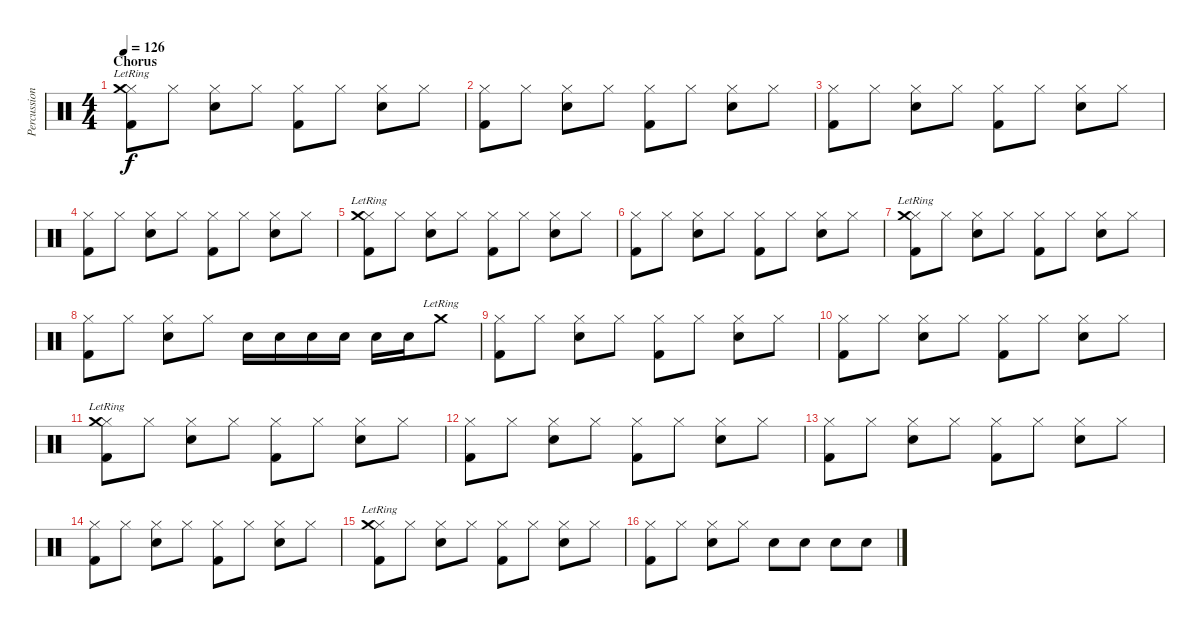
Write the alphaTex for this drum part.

\track ("Percussion" "Percussion") {instrument percussion}
\staff {score}
\articulation defaults
\ts (4 4)
\section ("" "Chorus")
\tempo 126
\clef neutral
\ks c
("Hi-Hat (closed)" "Kick (hit) 2" "Crash medium (hit)"{lr}).8{dy f} "Hi-Hat (closed)".8 ("Hi-Hat (closed)" "Snare (hit) 2").8 "Hi-Hat (closed)".8 ("Hi-Hat (closed)" "Kick (hit) 2").8 "Hi-Hat (closed)".8 ("Hi-Hat (closed)" "Snare (hit) 2").8 "Hi-Hat (closed)".8 |
("Hi-Hat (closed)" "Kick (hit) 2").8 "Hi-Hat (closed)".8 ("Hi-Hat (closed)" "Snare (hit) 2").8 "Hi-Hat (closed)".8 ("Hi-Hat (closed)" "Kick (hit) 2").8 "Hi-Hat (closed)".8 ("Hi-Hat (closed)" "Snare (hit) 2").8 "Hi-Hat (closed)".8 |
("Hi-Hat (closed)" "Kick (hit) 2").8 "Hi-Hat (closed)".8 ("Hi-Hat (closed)" "Snare (hit) 2").8 "Hi-Hat (closed)".8 ("Hi-Hat (closed)" "Kick (hit) 2").8 "Hi-Hat (closed)".8 ("Hi-Hat (closed)" "Snare (hit) 2").8 "Hi-Hat (closed)".8 |
("Hi-Hat (closed)" "Kick (hit) 2").8 "Hi-Hat (closed)".8 ("Hi-Hat (closed)" "Snare (hit) 2").8 "Hi-Hat (closed)".8 ("Hi-Hat (closed)" "Kick (hit) 2").8 "Hi-Hat (closed)".8 ("Hi-Hat (closed)" "Snare (hit) 2").8 "Hi-Hat (closed)".8 |
("Hi-Hat (closed)" "Kick (hit) 2" "Crash medium (hit)"{lr}).8 "Hi-Hat (closed)".8 ("Hi-Hat (closed)" "Snare (hit) 2").8 "Hi-Hat (closed)".8 ("Hi-Hat (closed)" "Kick (hit) 2").8 "Hi-Hat (closed)".8 ("Hi-Hat (closed)" "Snare (hit) 2").8 "Hi-Hat (closed)".8 |
("Hi-Hat (closed)" "Kick (hit) 2").8 "Hi-Hat (closed)".8 ("Hi-Hat (closed)" "Snare (hit) 2").8 "Hi-Hat (closed)".8 ("Hi-Hat (closed)" "Kick (hit) 2").8 "Hi-Hat (closed)".8 ("Hi-Hat (closed)" "Snare (hit) 2").8 "Hi-Hat (closed)".8 |
("Hi-Hat (closed)" "Kick (hit) 2" "Crash medium (hit)"{lr}).8 "Hi-Hat (closed)".8 ("Hi-Hat (closed)" "Snare (hit) 2").8 "Hi-Hat (closed)".8 ("Hi-Hat (closed)" "Kick (hit) 2").8 "Hi-Hat (closed)".8 ("Hi-Hat (closed)" "Snare (hit) 2").8 "Hi-Hat (closed)".8 |
("Hi-Hat (closed)" "Kick (hit) 2").8 "Hi-Hat (closed)".8 ("Hi-Hat (closed)" "Snare (hit) 2").8 "Hi-Hat (closed)".8 "Snare (hit) 2".16 "Snare (hit) 2".16 "Snare (hit) 2".16 "Snare (hit) 2".16 "Snare (hit) 2".16 "Snare (hit) 2".16 "Crash medium (hit)"{lr}.8 |
("Hi-Hat (closed)" "Kick (hit) 2").8 "Hi-Hat (closed)".8 ("Hi-Hat (closed)" "Snare (hit) 2").8 "Hi-Hat (closed)".8 ("Hi-Hat (closed)" "Kick (hit) 2").8 "Hi-Hat (closed)".8 ("Hi-Hat (closed)" "Snare (hit) 2").8 "Hi-Hat (closed)".8 |
("Hi-Hat (closed)" "Kick (hit) 2").8 "Hi-Hat (closed)".8 ("Hi-Hat (closed)" "Snare (hit) 2").8 "Hi-Hat (closed)".8 ("Hi-Hat (closed)" "Kick (hit) 2").8 "Hi-Hat (closed)".8 ("Hi-Hat (closed)" "Snare (hit) 2").8 "Hi-Hat (closed)".8 |
("Hi-Hat (closed)" "Kick (hit) 2" "Crash medium (hit)"{lr}).8 "Hi-Hat (closed)".8 ("Hi-Hat (closed)" "Snare (hit) 2").8 "Hi-Hat (closed)".8 ("Hi-Hat (closed)" "Kick (hit) 2").8 "Hi-Hat (closed)".8 ("Hi-Hat (closed)" "Snare (hit) 2").8 "Hi-Hat (closed)".8 |
("Hi-Hat (closed)" "Kick (hit) 2").8 "Hi-Hat (closed)".8 ("Hi-Hat (closed)" "Snare (hit) 2").8 "Hi-Hat (closed)".8 ("Hi-Hat (closed)" "Kick (hit) 2").8 "Hi-Hat (closed)".8 ("Hi-Hat (closed)" "Snare (hit) 2").8 "Hi-Hat (closed)".8 |
("Hi-Hat (closed)" "Kick (hit) 2").8 "Hi-Hat (closed)".8 ("Hi-Hat (closed)" "Snare (hit) 2").8 "Hi-Hat (closed)".8 ("Hi-Hat (closed)" "Kick (hit) 2").8 "Hi-Hat (closed)".8 ("Hi-Hat (closed)" "Snare (hit) 2").8 "Hi-Hat (closed)".8 |
("Hi-Hat (closed)" "Kick (hit) 2").8 "Hi-Hat (closed)".8 ("Hi-Hat (closed)" "Snare (hit) 2").8 "Hi-Hat (closed)".8 ("Hi-Hat (closed)" "Kick (hit) 2").8 "Hi-Hat (closed)".8 ("Hi-Hat (closed)" "Snare (hit) 2").8 "Hi-Hat (closed)".8 |
("Hi-Hat (closed)" "Kick (hit) 2" "Crash medium (hit)"{lr}).8 "Hi-Hat (closed)".8 ("Hi-Hat (closed)" "Snare (hit) 2").8 "Hi-Hat (closed)".8 ("Hi-Hat (closed)" "Kick (hit) 2").8 "Hi-Hat (closed)".8 ("Hi-Hat (closed)" "Snare (hit) 2").8 "Hi-Hat (closed)".8 |
("Hi-Hat (closed)" "Kick (hit) 2").8 "Hi-Hat (closed)".8 ("Hi-Hat (closed)" "Snare (hit) 2").8 "Hi-Hat (closed)".8 "Snare (hit) 2".8 "Snare (hit) 2".8 "Snare (hit) 2".8 "Snare (hit) 2".8
